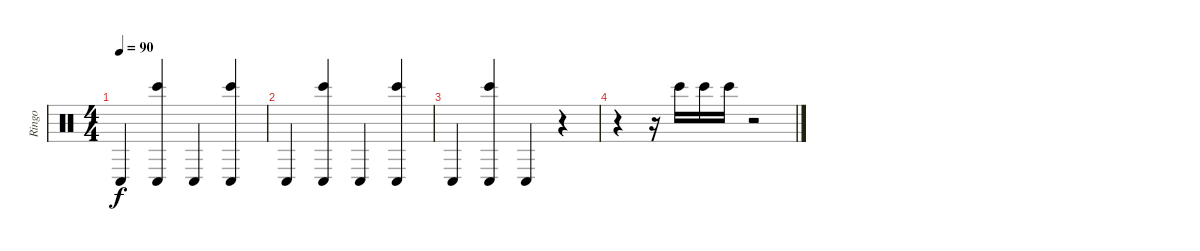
\track ("Ringo" "Ringo") {instrument percussion}
\staff {score}
\articulation defaults
\ts (4 4)
\tempo 90
\clef neutral
\ks c "Conga low (hit)".4{dy f}
("Conga low (hit)" "Bongo High (hit)").4 "Conga low (hit)".4 ("Conga low (hit)" "Bongo High (hit)").4 |
"Conga low (hit)".4 ("Conga low (hit)" "Bongo High (hit)").4 "Conga low (hit)".4 ("Conga low (hit)" "Bongo High (hit)").4 |
"Conga low (hit)".4 ("Conga low (hit)" "Bongo High (hit)").4 "Conga low (hit)".4 r.4 |
r.4 r.16 "Bongo High (hit)".16 "Bongo High (hit)".16 "Bongo High (hit)".16 r.2
